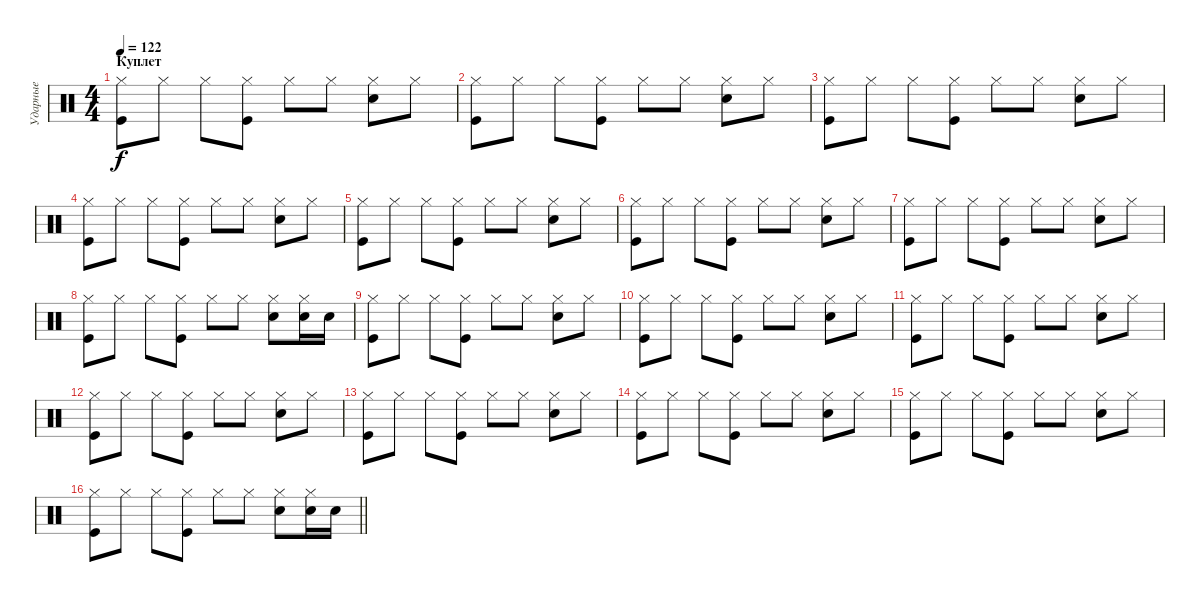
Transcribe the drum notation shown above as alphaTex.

\track ("Ударные" "Ударные") {instrument percussion}
\staff {score}
\articulation defaults
\ts (4 4)
\section ("" "Куплет")
\tempo 122
\clef neutral
\ks c
("Hi-Hat (closed)" "Kick (hit)").8{dy f} "Hi-Hat (closed)".8 "Hi-Hat (closed)".8 ("Kick (hit)" "Hi-Hat (closed)").8 "Hi-Hat (closed)".8 "Hi-Hat (closed)".8 ("Electric Snare (hit)" "Hi-Hat (closed)").8 "Hi-Hat (closed)".8 |
("Hi-Hat (closed)" "Kick (hit)").8 "Hi-Hat (closed)".8 "Hi-Hat (closed)".8 ("Kick (hit)" "Hi-Hat (closed)").8 "Hi-Hat (closed)".8 "Hi-Hat (closed)".8 ("Electric Snare (hit)" "Hi-Hat (closed)").8 "Hi-Hat (closed)".8 |
("Hi-Hat (closed)" "Kick (hit)").8 "Hi-Hat (closed)".8 "Hi-Hat (closed)".8 ("Kick (hit)" "Hi-Hat (closed)").8 "Hi-Hat (closed)".8 "Hi-Hat (closed)".8 ("Electric Snare (hit)" "Hi-Hat (closed)").8 "Hi-Hat (closed)".8 |
("Hi-Hat (closed)" "Kick (hit)").8 "Hi-Hat (closed)".8 "Hi-Hat (closed)".8 ("Kick (hit)" "Hi-Hat (closed)").8 "Hi-Hat (closed)".8 "Hi-Hat (closed)".8 ("Electric Snare (hit)" "Hi-Hat (closed)").8 "Hi-Hat (closed)".8 |
("Hi-Hat (closed)" "Kick (hit)").8 "Hi-Hat (closed)".8 "Hi-Hat (closed)".8 ("Kick (hit)" "Hi-Hat (closed)").8 "Hi-Hat (closed)".8 "Hi-Hat (closed)".8 ("Electric Snare (hit)" "Hi-Hat (closed)").8 "Hi-Hat (closed)".8 |
("Hi-Hat (closed)" "Kick (hit)").8 "Hi-Hat (closed)".8 "Hi-Hat (closed)".8 ("Kick (hit)" "Hi-Hat (closed)").8 "Hi-Hat (closed)".8 "Hi-Hat (closed)".8 ("Electric Snare (hit)" "Hi-Hat (closed)").8 "Hi-Hat (closed)".8 |
("Hi-Hat (closed)" "Kick (hit)").8 "Hi-Hat (closed)".8 "Hi-Hat (closed)".8 ("Kick (hit)" "Hi-Hat (closed)").8 "Hi-Hat (closed)".8 "Hi-Hat (closed)".8 ("Electric Snare (hit)" "Hi-Hat (closed)").8 "Hi-Hat (closed)".8 |
("Hi-Hat (closed)" "Kick (hit)").8 "Hi-Hat (closed)".8 "Hi-Hat (closed)".8 ("Kick (hit)" "Hi-Hat (closed)").8 "Hi-Hat (closed)".8 "Hi-Hat (closed)".8 ("Electric Snare (hit)" "Hi-Hat (closed)").8 ("Electric Snare (hit)" "Hi-Hat (closed)").16 "Electric Snare (hit)".16 |
("Hi-Hat (closed)" "Kick (hit)").8 "Hi-Hat (closed)".8 "Hi-Hat (closed)".8 ("Kick (hit)" "Hi-Hat (closed)").8 "Hi-Hat (closed)".8 "Hi-Hat (closed)".8 ("Electric Snare (hit)" "Hi-Hat (closed)").8 "Hi-Hat (closed)".8 |
("Hi-Hat (closed)" "Kick (hit)").8 "Hi-Hat (closed)".8 "Hi-Hat (closed)".8 ("Kick (hit)" "Hi-Hat (closed)").8 "Hi-Hat (closed)".8 "Hi-Hat (closed)".8 ("Electric Snare (hit)" "Hi-Hat (closed)").8 "Hi-Hat (closed)".8 |
("Hi-Hat (closed)" "Kick (hit)").8 "Hi-Hat (closed)".8 "Hi-Hat (closed)".8 ("Kick (hit)" "Hi-Hat (closed)").8 "Hi-Hat (closed)".8 "Hi-Hat (closed)".8 ("Electric Snare (hit)" "Hi-Hat (closed)").8 "Hi-Hat (closed)".8 |
("Hi-Hat (closed)" "Kick (hit)").8 "Hi-Hat (closed)".8 "Hi-Hat (closed)".8 ("Kick (hit)" "Hi-Hat (closed)").8 "Hi-Hat (closed)".8 "Hi-Hat (closed)".8 ("Electric Snare (hit)" "Hi-Hat (closed)").8 "Hi-Hat (closed)".8 |
("Hi-Hat (closed)" "Kick (hit)").8 "Hi-Hat (closed)".8 "Hi-Hat (closed)".8 ("Kick (hit)" "Hi-Hat (closed)").8 "Hi-Hat (closed)".8 "Hi-Hat (closed)".8 ("Electric Snare (hit)" "Hi-Hat (closed)").8 "Hi-Hat (closed)".8 |
("Hi-Hat (closed)" "Kick (hit)").8 "Hi-Hat (closed)".8 "Hi-Hat (closed)".8 ("Kick (hit)" "Hi-Hat (closed)").8 "Hi-Hat (closed)".8 "Hi-Hat (closed)".8 ("Electric Snare (hit)" "Hi-Hat (closed)").8 "Hi-Hat (closed)".8 |
("Hi-Hat (closed)" "Kick (hit)").8 "Hi-Hat (closed)".8 "Hi-Hat (closed)".8 ("Kick (hit)" "Hi-Hat (closed)").8 "Hi-Hat (closed)".8 "Hi-Hat (closed)".8 ("Electric Snare (hit)" "Hi-Hat (closed)").8 "Hi-Hat (closed)".8 |
\barLineRight lightlight
("Hi-Hat (closed)" "Kick (hit)").8 "Hi-Hat (closed)".8 "Hi-Hat (closed)".8 ("Kick (hit)" "Hi-Hat (closed)").8 "Hi-Hat (closed)".8 "Hi-Hat (closed)".8 ("Electric Snare (hit)" "Hi-Hat (closed)").8 ("Electric Snare (hit)" "Hi-Hat (closed)").16 "Electric Snare (hit)".16
